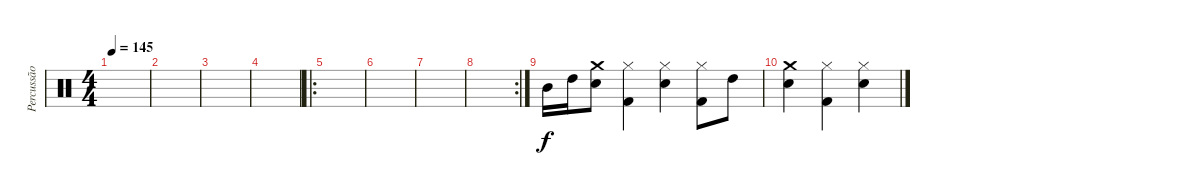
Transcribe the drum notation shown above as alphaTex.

\track ("Percussão" "Percussão") {instrument percussion}
\staff {score}
\articulation defaults
\ts (4 4)
\tempo 145
\clef neutral
\ks c
|
|
|
|
\ro
|
|
|
\rc 2
|
"Mid Tom (hit)".16 "High Tom (hit)".16 ("Crash medium (hit)" "Electric Snare (hit)").8 ("Hi-Hat (closed)" "Kick (hit) 2").4 ("Hi-Hat (closed)" "Electric Snare (hit)").4 ("Hi-Hat (closed)" "Kick (hit) 2").8 "High Tom (hit)".8 |
("Crash medium (hit)" "Electric Snare (hit)").4 ("Hi-Hat (closed)" "Kick (hit) 2").4 ("Hi-Hat (closed)" "Electric Snare (hit)").4
